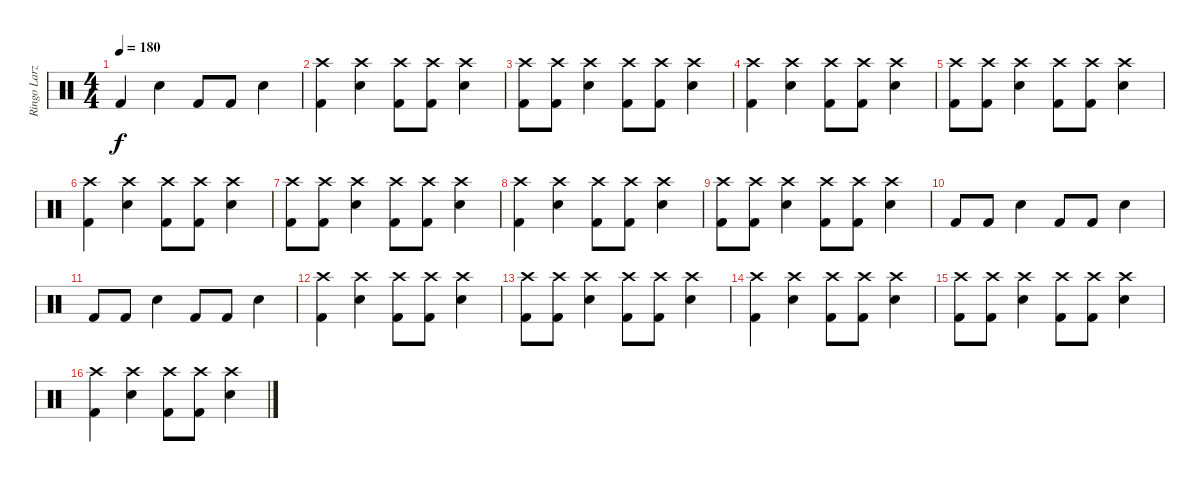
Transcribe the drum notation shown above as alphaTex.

\track ("Ringo Larz" "Ringo Larz") {instrument percussion}
\staff {score}
\articulation defaults
\ts (4 4)
\tempo 180
\clef neutral
\ks c "Kick (hit) 2".4{dy f} "Snare (hit) 2".4 "Kick (hit) 2".8 "Kick (hit) 2".8 "Snare (hit) 2".4
|
("Crash high (hit)" "Kick (hit) 2").4 ("Crash high (hit)" "Snare (hit) 2").4 ("Crash high (hit)" "Kick (hit) 2").8 ("Crash high (hit)" "Kick (hit) 2").8 ("Crash high (hit)" "Snare (hit) 2").4 |
("Crash high (hit)" "Kick (hit) 2").8 ("Crash high (hit)" "Kick (hit) 2").8 ("Crash high (hit)" "Snare (hit) 2").4 ("Crash high (hit)" "Kick (hit) 2").8 ("Crash high (hit)" "Kick (hit) 2").8 ("Crash high (hit)" "Snare (hit) 2").4 |
("Crash high (hit)" "Kick (hit) 2").4 ("Crash high (hit)" "Snare (hit) 2").4 ("Crash high (hit)" "Kick (hit) 2").8 ("Crash high (hit)" "Kick (hit) 2").8 ("Crash high (hit)" "Snare (hit) 2").4 |
("Crash high (hit)" "Kick (hit) 2").8 ("Crash high (hit)" "Kick (hit) 2").8 ("Crash high (hit)" "Snare (hit) 2").4 ("Crash high (hit)" "Kick (hit) 2").8 ("Crash high (hit)" "Kick (hit) 2").8 ("Crash high (hit)" "Snare (hit) 2").4 |
("Crash high (hit)" "Kick (hit) 2").4 ("Crash high (hit)" "Snare (hit) 2").4 ("Crash high (hit)" "Kick (hit) 2").8 ("Crash high (hit)" "Kick (hit) 2").8 ("Crash high (hit)" "Snare (hit) 2").4 |
("Crash high (hit)" "Kick (hit) 2").8 ("Crash high (hit)" "Kick (hit) 2").8 ("Crash high (hit)" "Snare (hit) 2").4 ("Crash high (hit)" "Kick (hit) 2").8 ("Crash high (hit)" "Kick (hit) 2").8 ("Crash high (hit)" "Snare (hit) 2").4 |
("Crash high (hit)" "Kick (hit) 2").4 ("Crash high (hit)" "Snare (hit) 2").4 ("Crash high (hit)" "Kick (hit) 2").8 ("Crash high (hit)" "Kick (hit) 2").8 ("Crash high (hit)" "Snare (hit) 2").4 |
("Crash high (hit)" "Kick (hit) 2").8 ("Crash high (hit)" "Kick (hit) 2").8 ("Crash high (hit)" "Snare (hit) 2").4 ("Crash high (hit)" "Kick (hit) 2").8 ("Crash high (hit)" "Kick (hit) 2").8 ("Crash high (hit)" "Snare (hit) 2").4 |
"Kick (hit) 2".8 "Kick (hit) 2".8 "Snare (hit) 2".4 "Kick (hit) 2".8 "Kick (hit) 2".8 "Snare (hit) 2".4 |
"Kick (hit) 2".8 "Kick (hit) 2".8 "Snare (hit) 2".4 "Kick (hit) 2".8 "Kick (hit) 2".8 "Snare (hit) 2".4 |
("Crash high (hit)" "Kick (hit) 2").4 ("Crash high (hit)" "Snare (hit) 2").4 ("Crash high (hit)" "Kick (hit) 2").8 ("Crash high (hit)" "Kick (hit) 2").8 ("Crash high (hit)" "Snare (hit) 2").4 |
("Crash high (hit)" "Kick (hit) 2").8 ("Crash high (hit)" "Kick (hit) 2").8 ("Crash high (hit)" "Snare (hit) 2").4 ("Crash high (hit)" "Kick (hit) 2").8 ("Crash high (hit)" "Kick (hit) 2").8 ("Crash high (hit)" "Snare (hit) 2").4 |
("Crash high (hit)" "Kick (hit) 2").4 ("Crash high (hit)" "Snare (hit) 2").4 ("Crash high (hit)" "Kick (hit) 2").8 ("Crash high (hit)" "Kick (hit) 2").8 ("Crash high (hit)" "Snare (hit) 2").4 |
("Crash high (hit)" "Kick (hit) 2").8 ("Crash high (hit)" "Kick (hit) 2").8 ("Crash high (hit)" "Snare (hit) 2").4 ("Crash high (hit)" "Kick (hit) 2").8 ("Crash high (hit)" "Kick (hit) 2").8 ("Crash high (hit)" "Snare (hit) 2").4 |
("Crash high (hit)" "Kick (hit) 2").4 ("Crash high (hit)" "Snare (hit) 2").4 ("Crash high (hit)" "Kick (hit) 2").8 ("Crash high (hit)" "Kick (hit) 2").8 ("Crash high (hit)" "Snare (hit) 2").4
